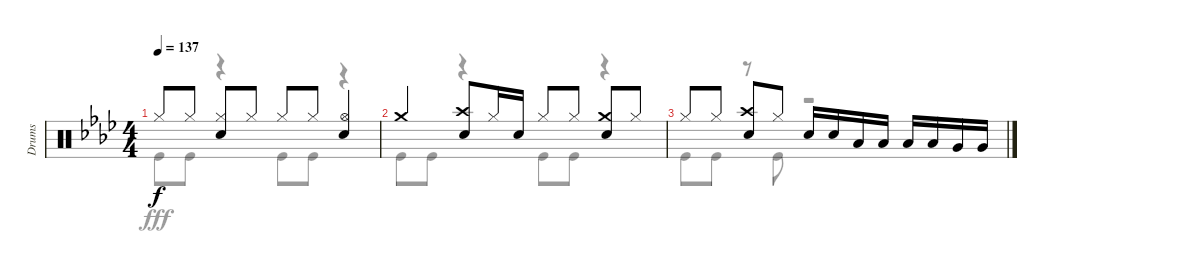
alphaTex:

\track ("Drums" "Drums") {instrument percussion}
\staff {score}
\articulation defaults
\voice
\ts (4 4)
\tempo 137
\clef neutral
\ks ab "Hi-Hat (closed)".8{dy f} "Hi-Hat (closed)".8
("Hi-Hat (closed)" "Snare (hit) 2").8 "Hi-Hat (closed)".8 "Hi-Hat (closed)".8 "Hi-Hat (closed)".8 ("Hi-Hat (open)" "Snare (hit) 2").4 |
"Crash medium (hit)".4 ("Crash high (hit)" "Snare (hit) 2").8 "Hi-Hat (closed)".16 "Snare (hit) 2".16 "Hi-Hat (closed)".8 "Hi-Hat (closed)".8 ("Crash medium (hit)" "Snare (hit) 2").8 "Hi-Hat (closed)".8 |
"Hi-Hat (closed)".8 "Hi-Hat (closed)".8 ("Crash high (hit)" "Snare (hit) 2").8 "Hi-Hat (closed)".8 "Snare (hit) 2".16 "Snare (hit) 2".16 "Low Tom (hit)".16 "Low Tom (hit)".16 "Low Tom (hit)".16 "Low Tom (hit)".16 "Very Low Tom (hit)".16 "Very Low Tom (hit)".16
\voice
\clef neutral
\ottava regular
\simile none
\ks ab "Kick (hit)".8{dy fff} "Kick (hit)".8
r.4 "Kick (hit)".8 "Kick (hit)".8 r.4 |
"Kick (hit)".8 "Kick (hit)".8 r.4 "Kick (hit)".8 "Kick (hit)".8 r.4 |
"Kick (hit)".8 "Kick (hit)".8 r.8 "Kick (hit)".8 r.2
